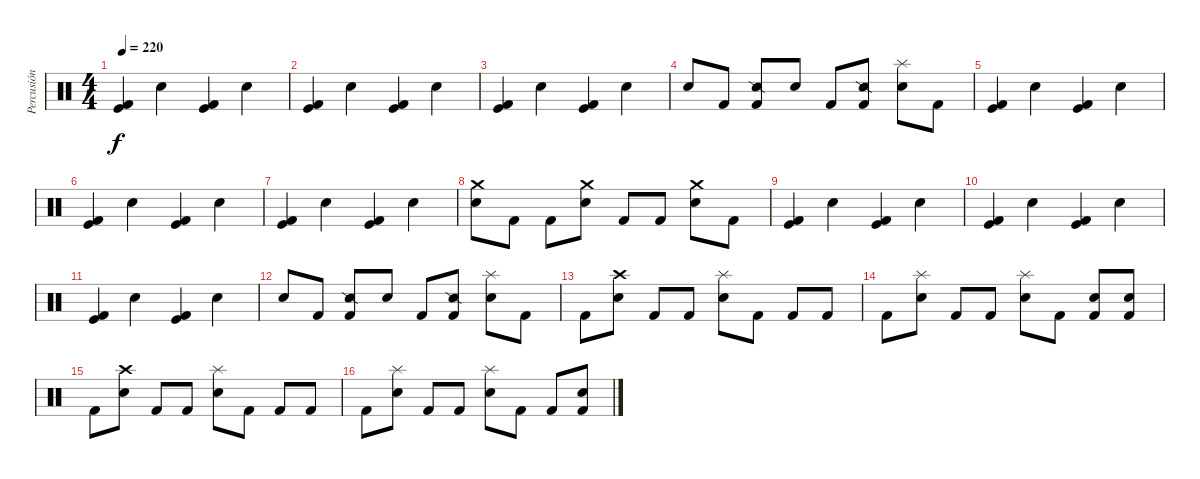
\track ("Percusión" "Percusión") {instrument percussion}
\staff {score}
\articulation defaults
\ts (4 4)
\tempo 220
\clef neutral
\ks c
("Kick (hit) 2" "Kick (hit)").4{dy f} "Snare (hit) 2".4 ("Kick (hit) 2" "Kick (hit)").4 "Snare (hit) 2".4 |
("Kick (hit) 2" "Kick (hit)").4 "Snare (hit) 2".4 ("Kick (hit) 2" "Kick (hit)").4 "Snare (hit) 2".4 |
("Kick (hit) 2" "Kick (hit)").4 "Snare (hit) 2".4 ("Kick (hit) 2" "Kick (hit)").4 "Snare (hit) 2".4 |
"Snare (hit) 2".8 "Kick (hit) 2".8 ("Snare (side stick) 2" "Kick (hit) 2").8 "Snare (hit) 2".8 "Kick (hit) 2".8 ("Snare (side stick) 2" "Kick (hit) 2").8 ("Splash (hit)" "Snare (hit) 2").8 "Kick (hit) 2".8 |
("Kick (hit) 2" "Kick (hit)").4 "Snare (hit) 2".4 ("Kick (hit) 2" "Kick (hit)").4 "Snare (hit) 2".4 |
("Kick (hit) 2" "Kick (hit)").4 "Snare (hit) 2".4 ("Kick (hit) 2" "Kick (hit)").4 "Snare (hit) 2".4 |
("Kick (hit) 2" "Kick (hit)").4 "Snare (hit) 2".4 ("Kick (hit) 2" "Kick (hit)").4 "Snare (hit) 2".4 |
("Crash medium (hit)" "Snare (hit) 2").8 "Kick (hit) 2".8 "Kick (hit) 2".8 ("Crash medium (hit)" "Snare (hit) 2").8 "Kick (hit) 2".8 "Kick (hit) 2".8 ("Crash medium (hit)" "Snare (hit) 2").8 "Kick (hit) 2".8 |
("Kick (hit) 2" "Kick (hit)").4 "Snare (hit) 2".4 ("Kick (hit) 2" "Kick (hit)").4 "Snare (hit) 2".4 |
("Kick (hit) 2" "Kick (hit)").4 "Snare (hit) 2".4 ("Kick (hit) 2" "Kick (hit)").4 "Snare (hit) 2".4 |
("Kick (hit) 2" "Kick (hit)").4 "Snare (hit) 2".4 ("Kick (hit) 2" "Kick (hit)").4 "Snare (hit) 2".4 |
"Snare (hit) 2".8 "Kick (hit) 2".8 ("Snare (side stick) 2" "Kick (hit) 2").8 "Snare (hit) 2".8 "Kick (hit) 2".8 ("Snare (side stick) 2" "Kick (hit) 2").8 ("Splash (hit)" "Snare (hit) 2").8 "Kick (hit) 2".8 |
"Kick (hit) 2".8 ("Crash high (hit)" "Snare (hit) 2").8 "Kick (hit) 2".8 "Kick (hit) 2".8 ("Splash (hit)" "Snare (hit) 2").8 "Kick (hit) 2".8 "Kick (hit) 2".8 "Kick (hit) 2".8 |
"Kick (hit) 2".8 ("Splash (hit)" "Snare (hit) 2").8 "Kick (hit) 2".8 "Kick (hit) 2".8 ("Splash (hit)" "Snare (hit) 2").8 "Kick (hit) 2".8 ("Snare (hit) 2" "Kick (hit) 2").8 ("Snare (hit) 2" "Kick (hit) 2").8 |
"Kick (hit) 2".8 ("Crash high (hit)" "Snare (hit) 2").8 "Kick (hit) 2".8 "Kick (hit) 2".8 ("Splash (hit)" "Snare (hit) 2").8 "Kick (hit) 2".8 "Kick (hit) 2".8 "Kick (hit) 2".8 |
"Kick (hit) 2".8 ("Splash (hit)" "Snare (hit) 2").8 "Kick (hit) 2".8 "Kick (hit) 2".8 ("Splash (hit)" "Snare (hit) 2").8 "Kick (hit) 2".8 "Kick (hit) 2".8 ("Snare (hit) 2" "Kick (hit) 2").8
